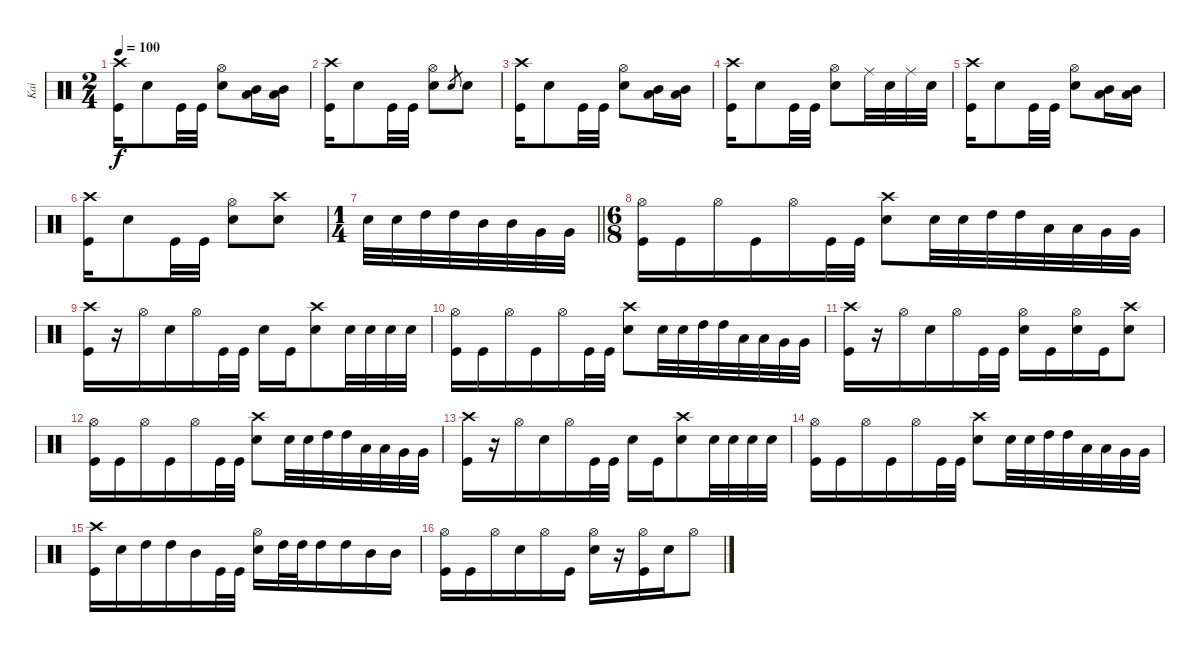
\track ("Kai" "Kai") {instrument percussion}
\staff {score}
\articulation defaults
\ts (2 4)
\tempo 100
\clef neutral
\ks c
("Crash high (hit)" "Kick (hit)").16{dy f} "Snare (hit) 2".8 "Kick (hit)".32 "Kick (hit)".32 ("Hi-Hat (open)" "Snare (hit) 2").8 ("Low Tom (hit)" "Mid Tom (hit)").16 ("Low Tom (hit)" "Mid Tom (hit)").16 |
("Crash high (hit)" "Kick (hit)").16 "Snare (hit) 2".8 "Kick (hit)".32 "Kick (hit)".32 ("Hi-Hat (open)" "Snare (hit) 2").8 "Snare (hit) 2".8{gr} "Snare (hit) 2".8 |
("Crash high (hit)" "Kick (hit)").16 "Snare (hit) 2".8 "Kick (hit)".32 "Kick (hit)".32 ("Hi-Hat (open)" "Snare (hit) 2").8 ("Low Tom (hit)" "Mid Tom (hit)").16 ("Low Tom (hit)" "Mid Tom (hit)").16 |
("Crash high (hit)" "Kick (hit)").16 "Snare (hit) 2".8 "Kick (hit)".32 "Kick (hit)".32 ("Hi-Hat (open)" "Snare (hit) 2").8 "Ride (middle)".32 "Snare (hit) 2".32 "Ride (middle)".32 "Snare (hit) 2".32 |
("Crash high (hit)" "Kick (hit)").16 "Snare (hit) 2".8 "Kick (hit)".32 "Kick (hit)".32 ("Hi-Hat (open)" "Snare (hit) 2").8 ("Low Tom (hit)" "Mid Tom (hit)").16 ("Low Tom (hit)" "Mid Tom (hit)").16 |
("Crash high (hit)" "Kick (hit)").16 "Snare (hit) 2".8 "Kick (hit)".32 "Kick (hit)".32 ("Hi-Hat (open)" "Snare (hit) 2").8 ("Crash high (hit)" "Snare (hit) 2").8 |
\ts (1 4)
\barLineRight lightlight "Snare (hit) 2".32 "Snare (hit) 2".32 "High Tom (hit)".32 "High Tom (hit)".32 "Mid Tom (hit)".32 "Mid Tom (hit)".32 "Very Low Tom (hit)".32 "Very Low Tom (hit)".32
|
\ts (6 8)
("Hi-Hat (open)" "Kick (hit)").16 "Kick (hit)".16 "Hi-Hat (open)".16 "Kick (hit)".16 "Hi-Hat (open)".16 "Kick (hit)".32 "Kick (hit)".32 ("Crash high (hit)" "Snare (hit) 2").8 "Snare (hit) 2".32 "Snare (hit) 2".32 "High Tom (hit)".32 "High Tom (hit)".32 "Low Tom (hit)".32 "Low Tom (hit)".32 "Very Low Tom (hit)".32 "Very Low Tom (hit)".32 |
("Crash high (hit)" "Kick (hit)").16 r.16 "Hi-Hat (open)".16 "Snare (hit) 2".16 "Hi-Hat (open)".16 "Kick (hit)".32 "Kick (hit)".32 "Snare (hit) 2".16 "Kick (hit)".16 ("Crash high (hit)" "Snare (hit) 2").8 "Snare (hit) 2".32 "Snare (hit) 2".32 "Snare (hit) 2".32 "Snare (hit) 2".32 |
("Hi-Hat (open)" "Kick (hit)").16 "Kick (hit)".16 "Hi-Hat (open)".16 "Kick (hit)".16 "Hi-Hat (open)".16 "Kick (hit)".32 "Kick (hit)".32 ("Crash high (hit)" "Snare (hit) 2").8 "Snare (hit) 2".32 "Snare (hit) 2".32 "High Tom (hit)".32 "High Tom (hit)".32 "Low Tom (hit)".32 "Low Tom (hit)".32 "Very Low Tom (hit)".32 "Very Low Tom (hit)".32 |
("Crash high (hit)" "Kick (hit)").16 r.16 "Hi-Hat (open)".16 "Snare (hit) 2".16 "Hi-Hat (open)".16 "Kick (hit)".32 "Kick (hit)".32 ("Hi-Hat (open)" "Snare (hit) 2").16 "Kick (hit)".16 ("Hi-Hat (open)" "Snare (hit) 2").16 "Kick (hit)".16 ("Crash high (hit)" "Snare (hit) 2").8 |
("Hi-Hat (open)" "Kick (hit)").16 "Kick (hit)".16 "Hi-Hat (open)".16 "Kick (hit)".16 "Hi-Hat (open)".16 "Kick (hit)".32 "Kick (hit)".32 ("Crash high (hit)" "Snare (hit) 2").8 "Snare (hit) 2".32 "Snare (hit) 2".32 "High Tom (hit)".32 "High Tom (hit)".32 "Low Tom (hit)".32 "Low Tom (hit)".32 "Very Low Tom (hit)".32 "Very Low Tom (hit)".32 |
("Crash high (hit)" "Kick (hit)").16 r.16 "Hi-Hat (open)".16 "Snare (hit) 2".16 "Hi-Hat (open)".16 "Kick (hit)".32 "Kick (hit)".32 "Snare (hit) 2".16 "Kick (hit)".16 ("Crash high (hit)" "Snare (hit) 2").8 "Snare (hit) 2".32 "Snare (hit) 2".32 "Snare (hit) 2".32 "Snare (hit) 2".32 |
("Hi-Hat (open)" "Kick (hit)").16 "Kick (hit)".16 "Hi-Hat (open)".16 "Kick (hit)".16 "Hi-Hat (open)".16 "Kick (hit)".32 "Kick (hit)".32 ("Crash high (hit)" "Snare (hit) 2").8 "Snare (hit) 2".32 "Snare (hit) 2".32 "High Tom (hit)".32 "High Tom (hit)".32 "Low Tom (hit)".32 "Low Tom (hit)".32 "Very Low Tom (hit)".32 "Very Low Tom (hit)".32 |
("Crash high (hit)" "Kick (hit)").16 "Snare (hit) 2".16 "High Tom (hit)".16 "High Tom (hit)".16 "Mid Tom (hit)".16 "Kick (hit)".32 "Kick (hit)".32 ("Hi-Hat (open)" "Snare (hit) 2").16 "High Tom (hit)".32 "High Tom (hit)".32 "High Tom (hit)".16 "High Tom (hit)".16 "Mid Tom (hit)".16 "Mid Tom (hit)".16 |
("Hi-Hat (open)" "Kick (hit)").16 "Kick (hit)".16 "Hi-Hat (open)".16 "Snare (hit) 2".16 "Hi-Hat (open)".16 "Kick (hit)".16 ("Hi-Hat (open)" "Snare (hit) 2").16 r.16 ("Hi-Hat (open)" "Kick (hit)").16 "Snare (hit) 2".16 "Hi-Hat (open)".8
